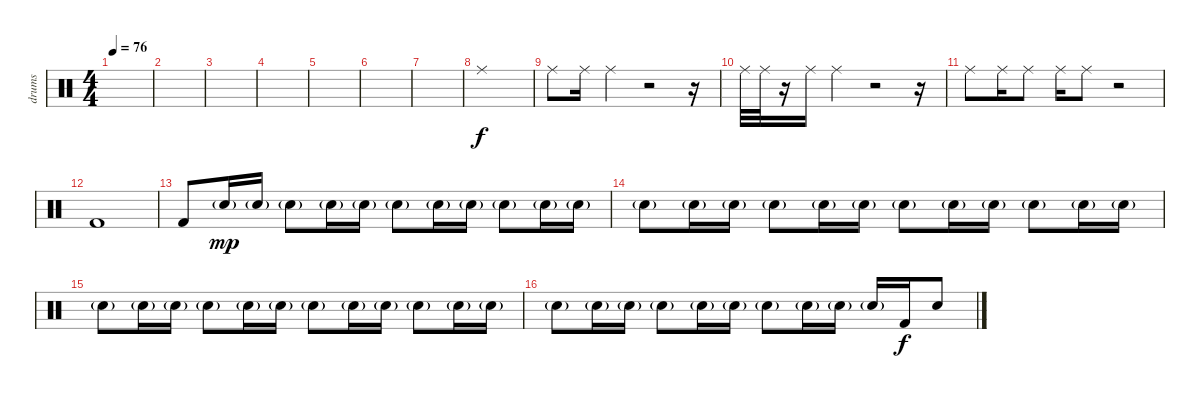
\track ("drums" "drums") {instrument percussion}
\staff {score}
\articulation defaults
\ts (4 4)
\tempo 76
\clef neutral
\ks c
|
|
|
|
|
|
|
"Ride (middle)".1 |
"Ride (middle)".8 "Ride (middle)".16 "Ride (middle)".4 r.2 r.16 |
"Ride (middle)".32 "Ride (middle)".32 r.16 "Ride (middle)".16 "Ride (middle)".4 r.2 r.16 |
"Ride (middle)".8 "Ride (middle)".16 "Ride (middle)".8 "Ride (middle)".16 "Ride (middle)".8 r.2 |
"Kick (hit) 2".1 |
"Kick (hit) 2".8 "Snare (hit) 2"{g}.16{dy mp} "Snare (hit) 2"{g}.16 "Snare (hit) 2"{g}.8 "Snare (hit) 2"{g}.16 "Snare (hit) 2"{g}.16 "Snare (hit) 2"{g}.8 "Snare (hit) 2"{g}.16 "Snare (hit) 2"{g}.16 "Snare (hit) 2"{g}.8 "Snare (hit) 2"{g}.16 "Snare (hit) 2"{g}.16 |
"Snare (hit) 2"{g}.8 "Snare (hit) 2"{g}.16 "Snare (hit) 2"{g}.16 "Snare (hit) 2"{g}.8 "Snare (hit) 2"{g}.16 "Snare (hit) 2"{g}.16 "Snare (hit) 2"{g}.8 "Snare (hit) 2"{g}.16 "Snare (hit) 2"{g}.16 "Snare (hit) 2"{g}.8 "Snare (hit) 2"{g}.16 "Snare (hit) 2"{g}.16 |
"Snare (hit) 2"{g}.8 "Snare (hit) 2"{g}.16 "Snare (hit) 2"{g}.16 "Snare (hit) 2"{g}.8 "Snare (hit) 2"{g}.16 "Snare (hit) 2"{g}.16 "Snare (hit) 2"{g}.8 "Snare (hit) 2"{g}.16 "Snare (hit) 2"{g}.16 "Snare (hit) 2"{g}.8 "Snare (hit) 2"{g}.16 "Snare (hit) 2"{g}.16 |
"Snare (hit) 2"{g}.8 "Snare (hit) 2"{g}.16 "Snare (hit) 2"{g}.16 "Snare (hit) 2"{g}.8 "Snare (hit) 2"{g}.16 "Snare (hit) 2"{g}.16 "Snare (hit) 2"{g}.8 "Snare (hit) 2"{g}.16 "Snare (hit) 2"{g}.16 "Snare (hit) 2"{g}.16 "Kick (hit) 2".16{dy f} "Snare (hit) 2".8
